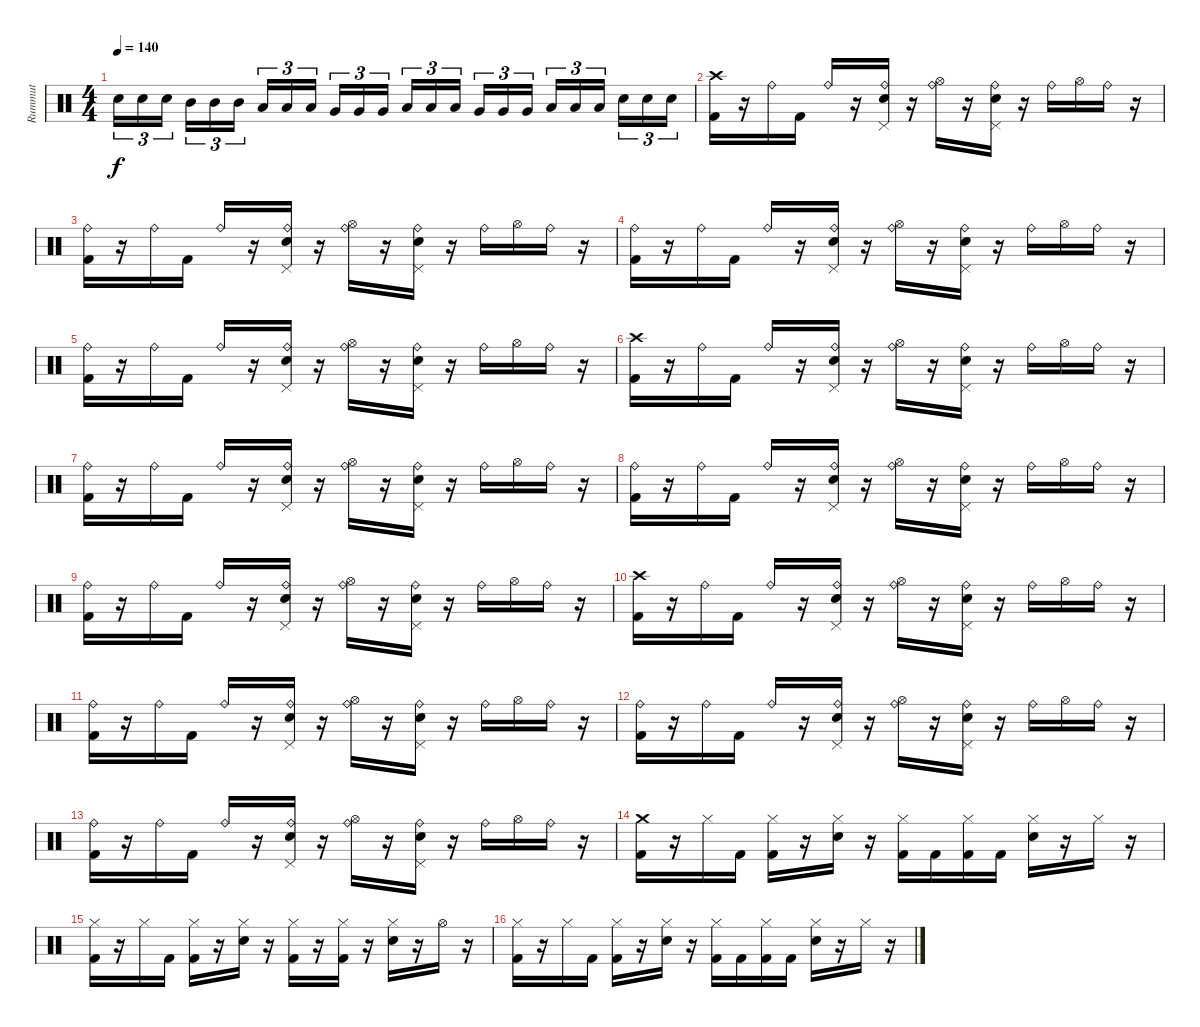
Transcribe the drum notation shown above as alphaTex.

\track ("Rummut" "Rummut") {instrument percussion}
\staff {score}
\articulation defaults
\ts (4 4)
\tempo 140
\clef neutral
\ks c "Snare (hit) 2".16{tu (3 2) dy f} "Snare (hit) 2".16{tu (3 2)} "Snare (hit) 2".16{tu (3 2)} "Mid Tom (hit)".16{tu (3 2)} "Mid Tom (hit)".16{tu (3 2)} "Mid Tom (hit)".16{tu (3 2)} "Low Tom (hit)".16{tu (3 2)} "Low Tom (hit)".16{tu (3 2)} "Low Tom (hit)".16{tu (3 2)} "Very Low Tom (hit)".16{tu (3 2)} "Very Low Tom (hit)".16{tu (3 2)} "Very Low Tom (hit)".16{tu (3 2)} "Low Floor Tom (hit)".16{tu (3 2)} "Low Floor Tom (hit)".16{tu (3 2)} "Low Floor Tom (hit)".16{tu (3 2)} "Very Low Tom (hit)".16{tu (3 2)} "Very Low Tom (hit)".16{tu (3 2)} "Very Low Tom (hit)".16{tu (3 2)} "Low Floor Tom (hit)".16{tu (3 2)} "Low Floor Tom (hit)".16{tu (3 2)} "Low Floor Tom (hit)".16{tu (3 2)} "Snare (hit) 2".16{tu (3 2)} "Snare (hit) 2".16{tu (3 2)} "Snare (hit) 2".16{tu (3 2)}
|
("Crash high (hit)" "Kick (hit) 2").16 r.16 "Ride (bell)".16 "Kick (hit) 2".16 "Ride (bell)".16 r.16 ("Ride (bell)" "Snare (hit) 2" "Pedal Hi-Hat (hit)").16 r.16 ("Ride (bell)" "Hi-Hat (open)").16 r.16 ("Ride (bell)" "Snare (hit) 2" "Pedal Hi-Hat (hit)").16 r.16 "Ride (bell)".16 "Hi-Hat (open)".16 "Ride (bell)".16 r.16 |
("Ride (bell)" "Kick (hit) 2").16 r.16 "Ride (bell)".16 "Kick (hit) 2".16 "Ride (bell)".16 r.16 ("Ride (bell)" "Snare (hit) 2" "Pedal Hi-Hat (hit)").16 r.16 ("Ride (bell)" "Hi-Hat (open)").16 r.16 ("Ride (bell)" "Snare (hit) 2" "Pedal Hi-Hat (hit)").16 r.16 "Ride (bell)".16 "Hi-Hat (open)".16 "Ride (bell)".16 r.16 |
("Ride (bell)" "Kick (hit) 2").16 r.16 "Ride (bell)".16 "Kick (hit) 2".16 "Ride (bell)".16 r.16 ("Ride (bell)" "Snare (hit) 2" "Pedal Hi-Hat (hit)").16 r.16 ("Ride (bell)" "Hi-Hat (open)").16 r.16 ("Ride (bell)" "Snare (hit) 2" "Pedal Hi-Hat (hit)").16 r.16 "Ride (bell)".16 "Hi-Hat (open)".16 "Ride (bell)".16 r.16 |
("Ride (bell)" "Kick (hit) 2").16 r.16 "Ride (bell)".16 "Kick (hit) 2".16 "Ride (bell)".16 r.16 ("Ride (bell)" "Snare (hit) 2" "Pedal Hi-Hat (hit)").16 r.16 ("Ride (bell)" "Hi-Hat (open)").16 r.16 ("Ride (bell)" "Snare (hit) 2" "Pedal Hi-Hat (hit)").16 r.16 "Ride (bell)".16 "Hi-Hat (open)".16 "Ride (bell)".16 r.16 |
("Crash high (hit)" "Kick (hit) 2").16 r.16 "Ride (bell)".16 "Kick (hit) 2".16 "Ride (bell)".16 r.16 ("Ride (bell)" "Snare (hit) 2" "Pedal Hi-Hat (hit)").16 r.16 ("Ride (bell)" "Hi-Hat (open)").16 r.16 ("Ride (bell)" "Snare (hit) 2" "Pedal Hi-Hat (hit)").16 r.16 "Ride (bell)".16 "Hi-Hat (open)".16 "Ride (bell)".16 r.16 |
("Ride (bell)" "Kick (hit) 2").16 r.16 "Ride (bell)".16 "Kick (hit) 2".16 "Ride (bell)".16 r.16 ("Ride (bell)" "Snare (hit) 2" "Pedal Hi-Hat (hit)").16 r.16 ("Ride (bell)" "Hi-Hat (open)").16 r.16 ("Ride (bell)" "Snare (hit) 2" "Pedal Hi-Hat (hit)").16 r.16 "Ride (bell)".16 "Hi-Hat (open)".16 "Ride (bell)".16 r.16 |
("Ride (bell)" "Kick (hit) 2").16 r.16 "Ride (bell)".16 "Kick (hit) 2".16 "Ride (bell)".16 r.16 ("Ride (bell)" "Snare (hit) 2" "Pedal Hi-Hat (hit)").16 r.16 ("Ride (bell)" "Hi-Hat (open)").16 r.16 ("Ride (bell)" "Snare (hit) 2" "Pedal Hi-Hat (hit)").16 r.16 "Ride (bell)".16 "Hi-Hat (open)".16 "Ride (bell)".16 r.16 |
("Ride (bell)" "Kick (hit) 2").16 r.16 "Ride (bell)".16 "Kick (hit) 2".16 "Ride (bell)".16 r.16 ("Ride (bell)" "Snare (hit) 2" "Pedal Hi-Hat (hit)").16 r.16 ("Ride (bell)" "Hi-Hat (open)").16 r.16 ("Ride (bell)" "Snare (hit) 2" "Pedal Hi-Hat (hit)").16 r.16 "Ride (bell)".16 "Hi-Hat (open)".16 "Ride (bell)".16 r.16 |
("Crash high (hit)" "Kick (hit) 2").16 r.16 "Ride (bell)".16 "Kick (hit) 2".16 "Ride (bell)".16 r.16 ("Ride (bell)" "Snare (hit) 2" "Pedal Hi-Hat (hit)").16 r.16 ("Ride (bell)" "Hi-Hat (open)").16 r.16 ("Ride (bell)" "Snare (hit) 2" "Pedal Hi-Hat (hit)").16 r.16 "Ride (bell)".16 "Hi-Hat (open)".16 "Ride (bell)".16 r.16 |
("Ride (bell)" "Kick (hit) 2").16 r.16 "Ride (bell)".16 "Kick (hit) 2".16 "Ride (bell)".16 r.16 ("Ride (bell)" "Snare (hit) 2" "Pedal Hi-Hat (hit)").16 r.16 ("Ride (bell)" "Hi-Hat (open)").16 r.16 ("Ride (bell)" "Snare (hit) 2" "Pedal Hi-Hat (hit)").16 r.16 "Ride (bell)".16 "Hi-Hat (open)".16 "Ride (bell)".16 r.16 |
("Ride (bell)" "Kick (hit) 2").16 r.16 "Ride (bell)".16 "Kick (hit) 2".16 "Ride (bell)".16 r.16 ("Ride (bell)" "Snare (hit) 2" "Pedal Hi-Hat (hit)").16 r.16 ("Ride (bell)" "Hi-Hat (open)").16 r.16 ("Ride (bell)" "Snare (hit) 2" "Pedal Hi-Hat (hit)").16 r.16 "Ride (bell)".16 "Hi-Hat (open)".16 "Ride (bell)".16 r.16 |
("Ride (bell)" "Kick (hit) 2").16 r.16 "Ride (bell)".16 "Kick (hit) 2".16 "Ride (bell)".16 r.16 ("Ride (bell)" "Snare (hit) 2" "Pedal Hi-Hat (hit)").16 r.16 ("Ride (bell)" "Hi-Hat (open)").16 r.16 ("Ride (bell)" "Snare (hit) 2" "Pedal Hi-Hat (hit)").16 r.16 "Ride (bell)".16 "Hi-Hat (open)".16 "Ride (bell)".16 r.16 |
("Crash medium (hit)" "Kick (hit) 2").16 r.16 "Hi-Hat (closed)".16 "Kick (hit) 2".16 ("Hi-Hat (closed)" "Kick (hit) 2").16 r.16 ("Hi-Hat (closed)" "Snare (hit) 2").16 r.16 ("Hi-Hat (closed)" "Kick (hit) 2").16 "Kick (hit) 2".16 ("Hi-Hat (closed)" "Kick (hit) 2").16 "Kick (hit) 2".16 ("Hi-Hat (closed)" "Snare (hit) 2").16 r.16 "Hi-Hat (closed)".16 r.16 |
("Hi-Hat (closed)" "Kick (hit) 2").16 r.16 "Hi-Hat (closed)".16 "Kick (hit) 2".16 ("Hi-Hat (closed)" "Kick (hit) 2").16 r.16 ("Hi-Hat (closed)" "Snare (hit) 2").16 r.16 ("Hi-Hat (closed)" "Kick (hit) 2").16 r.16 ("Hi-Hat (closed)" "Kick (hit) 2").16 r.16 ("Hi-Hat (closed)" "Snare (hit) 2").16 r.16 "Hi-Hat (open)".16 r.16 |
("Hi-Hat (closed)" "Kick (hit) 2").16 r.16 "Hi-Hat (closed)".16 "Kick (hit) 2".16 ("Hi-Hat (closed)" "Kick (hit) 2").16 r.16 ("Hi-Hat (closed)" "Snare (hit) 2").16 r.16 ("Hi-Hat (closed)" "Kick (hit) 2").16 "Kick (hit) 2".16 ("Hi-Hat (closed)" "Kick (hit) 2").16 "Kick (hit) 2".16 ("Hi-Hat (closed)" "Snare (hit) 2").16 r.16 "Hi-Hat (closed)".16 r.16
